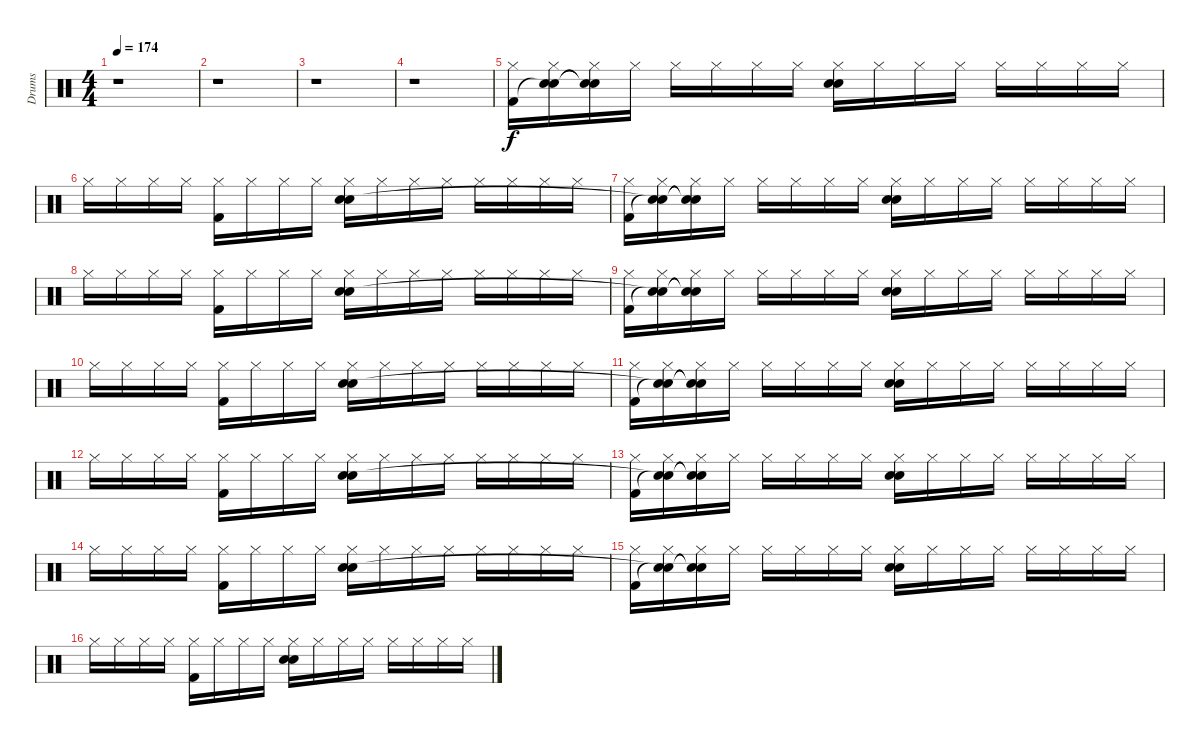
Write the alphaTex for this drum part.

\track ("Drums" "Drums") {instrument percussion}
\staff {score}
\articulation defaults
\ts (4 4)
\tempo 174
\clef neutral
\ks c
r.1{dy f} |
r.1 |
r.1 |
r.1 |
("Hi-Hat (closed)" "Kick (hit) 2").16 ("Hi-Hat (closed)" "Snare (hit)"{t} "Snare (hit)").16 ("Hi-Hat (closed)" "Snare (hit)"{t} "Snare (hit)"{t}).16 "Hi-Hat (closed)".16 "Hi-Hat (closed)".16 "Hi-Hat (closed)".16 "Hi-Hat (closed)".16 "Hi-Hat (closed)".16 ("Hi-Hat (closed)" "Electric Snare (hit)" "Snare (hit) 2").16 "Hi-Hat (closed)".16 "Hi-Hat (closed)".16 "Hi-Hat (closed)".16 "Hi-Hat (closed)".16 "Hi-Hat (closed)".16 "Hi-Hat (closed)".16 "Hi-Hat (closed)".16 |
"Hi-Hat (closed)".16 "Hi-Hat (closed)".16 "Hi-Hat (closed)".16 "Hi-Hat (closed)".16 ("Hi-Hat (closed)" "Kick (hit) 2").16 "Hi-Hat (closed)".16 "Hi-Hat (closed)".16 "Hi-Hat (closed)".16 ("Hi-Hat (closed)" "Electric Snare (hit)" "Snare (hit) 2").16 "Hi-Hat (closed)".16 "Hi-Hat (closed)".16 "Hi-Hat (closed)".16 "Hi-Hat (closed)".16 "Hi-Hat (closed)".16 "Hi-Hat (closed)".16 "Hi-Hat (closed)".16 |
("Hi-Hat (closed)" "Kick (hit) 2").16 ("Hi-Hat (closed)" "Snare (hit)"{t} "Snare (hit)"{t}).16 ("Hi-Hat (closed)" "Snare (hit)"{t} "Snare (hit)"{t}).16 "Hi-Hat (closed)".16 "Hi-Hat (closed)".16 "Hi-Hat (closed)".16 "Hi-Hat (closed)".16 "Hi-Hat (closed)".16 ("Hi-Hat (closed)" "Electric Snare (hit)" "Snare (hit) 2").16 "Hi-Hat (closed)".16 "Hi-Hat (closed)".16 "Hi-Hat (closed)".16 "Hi-Hat (closed)".16 "Hi-Hat (closed)".16 "Hi-Hat (closed)".16 "Hi-Hat (closed)".16 |
"Hi-Hat (closed)".16 "Hi-Hat (closed)".16 "Hi-Hat (closed)".16 "Hi-Hat (closed)".16 ("Hi-Hat (closed)" "Kick (hit) 2").16 "Hi-Hat (closed)".16 "Hi-Hat (closed)".16 "Hi-Hat (closed)".16 ("Hi-Hat (closed)" "Electric Snare (hit)" "Snare (hit) 2").16 "Hi-Hat (closed)".16 "Hi-Hat (closed)".16 "Hi-Hat (closed)".16 "Hi-Hat (closed)".16 "Hi-Hat (closed)".16 "Hi-Hat (closed)".16 "Hi-Hat (closed)".16 |
("Hi-Hat (closed)" "Kick (hit) 2").16 ("Hi-Hat (closed)" "Snare (hit)"{t} "Snare (hit)"{t}).16 ("Hi-Hat (closed)" "Snare (hit)"{t} "Snare (hit)"{t}).16 "Hi-Hat (closed)".16 "Hi-Hat (closed)".16 "Hi-Hat (closed)".16 "Hi-Hat (closed)".16 "Hi-Hat (closed)".16 ("Hi-Hat (closed)" "Electric Snare (hit)" "Snare (hit) 2").16 "Hi-Hat (closed)".16 "Hi-Hat (closed)".16 "Hi-Hat (closed)".16 "Hi-Hat (closed)".16 "Hi-Hat (closed)".16 "Hi-Hat (closed)".16 "Hi-Hat (closed)".16 |
"Hi-Hat (closed)".16 "Hi-Hat (closed)".16 "Hi-Hat (closed)".16 "Hi-Hat (closed)".16 ("Hi-Hat (closed)" "Kick (hit) 2").16 "Hi-Hat (closed)".16 "Hi-Hat (closed)".16 "Hi-Hat (closed)".16 ("Hi-Hat (closed)" "Electric Snare (hit)" "Snare (hit) 2").16 "Hi-Hat (closed)".16 "Hi-Hat (closed)".16 "Hi-Hat (closed)".16 "Hi-Hat (closed)".16 "Hi-Hat (closed)".16 "Hi-Hat (closed)".16 "Hi-Hat (closed)".16 |
("Hi-Hat (closed)" "Kick (hit) 2").16 ("Hi-Hat (closed)" "Snare (hit)"{t} "Snare (hit)"{t}).16 ("Hi-Hat (closed)" "Snare (hit)"{t} "Snare (hit)"{t}).16 "Hi-Hat (closed)".16 "Hi-Hat (closed)".16 "Hi-Hat (closed)".16 "Hi-Hat (closed)".16 "Hi-Hat (closed)".16 ("Hi-Hat (closed)" "Electric Snare (hit)" "Snare (hit) 2").16 "Hi-Hat (closed)".16 "Hi-Hat (closed)".16 "Hi-Hat (closed)".16 "Hi-Hat (closed)".16 "Hi-Hat (closed)".16 "Hi-Hat (closed)".16 "Hi-Hat (closed)".16 |
"Hi-Hat (closed)".16 "Hi-Hat (closed)".16 "Hi-Hat (closed)".16 "Hi-Hat (closed)".16 ("Hi-Hat (closed)" "Kick (hit) 2").16 "Hi-Hat (closed)".16 "Hi-Hat (closed)".16 "Hi-Hat (closed)".16 ("Hi-Hat (closed)" "Electric Snare (hit)" "Snare (hit) 2").16 "Hi-Hat (closed)".16 "Hi-Hat (closed)".16 "Hi-Hat (closed)".16 "Hi-Hat (closed)".16 "Hi-Hat (closed)".16 "Hi-Hat (closed)".16 "Hi-Hat (closed)".16 |
("Hi-Hat (closed)" "Kick (hit) 2").16 ("Hi-Hat (closed)" "Snare (hit)"{t} "Snare (hit)"{t}).16 ("Hi-Hat (closed)" "Snare (hit)"{t} "Snare (hit)"{t}).16 "Hi-Hat (closed)".16 "Hi-Hat (closed)".16 "Hi-Hat (closed)".16 "Hi-Hat (closed)".16 "Hi-Hat (closed)".16 ("Hi-Hat (closed)" "Electric Snare (hit)" "Snare (hit) 2").16 "Hi-Hat (closed)".16 "Hi-Hat (closed)".16 "Hi-Hat (closed)".16 "Hi-Hat (closed)".16 "Hi-Hat (closed)".16 "Hi-Hat (closed)".16 "Hi-Hat (closed)".16 |
"Hi-Hat (closed)".16 "Hi-Hat (closed)".16 "Hi-Hat (closed)".16 "Hi-Hat (closed)".16 ("Hi-Hat (closed)" "Kick (hit) 2").16 "Hi-Hat (closed)".16 "Hi-Hat (closed)".16 "Hi-Hat (closed)".16 ("Hi-Hat (closed)" "Electric Snare (hit)" "Snare (hit) 2").16 "Hi-Hat (closed)".16 "Hi-Hat (closed)".16 "Hi-Hat (closed)".16 "Hi-Hat (closed)".16 "Hi-Hat (closed)".16 "Hi-Hat (closed)".16 "Hi-Hat (closed)".16 |
("Hi-Hat (closed)" "Kick (hit) 2").16 ("Hi-Hat (closed)" "Snare (hit)"{t} "Snare (hit)"{t}).16 ("Hi-Hat (closed)" "Snare (hit)"{t} "Snare (hit)"{t}).16 "Hi-Hat (closed)".16 "Hi-Hat (closed)".16 "Hi-Hat (closed)".16 "Hi-Hat (closed)".16 "Hi-Hat (closed)".16 ("Hi-Hat (closed)" "Electric Snare (hit)" "Snare (hit) 2").16 "Hi-Hat (closed)".16 "Hi-Hat (closed)".16 "Hi-Hat (closed)".16 "Hi-Hat (closed)".16 "Hi-Hat (closed)".16 "Hi-Hat (closed)".16 "Hi-Hat (closed)".16 |
"Hi-Hat (closed)".16 "Hi-Hat (closed)".16 "Hi-Hat (closed)".16 "Hi-Hat (closed)".16 ("Hi-Hat (closed)" "Kick (hit) 2").16 "Hi-Hat (closed)".16 "Hi-Hat (closed)".16 "Hi-Hat (closed)".16 ("Hi-Hat (closed)" "Electric Snare (hit)" "Snare (hit) 2").16 "Hi-Hat (closed)".16 "Hi-Hat (closed)".16 "Hi-Hat (closed)".16 "Hi-Hat (closed)".16 "Hi-Hat (closed)".16 "Hi-Hat (closed)".16 "Hi-Hat (closed)".16
